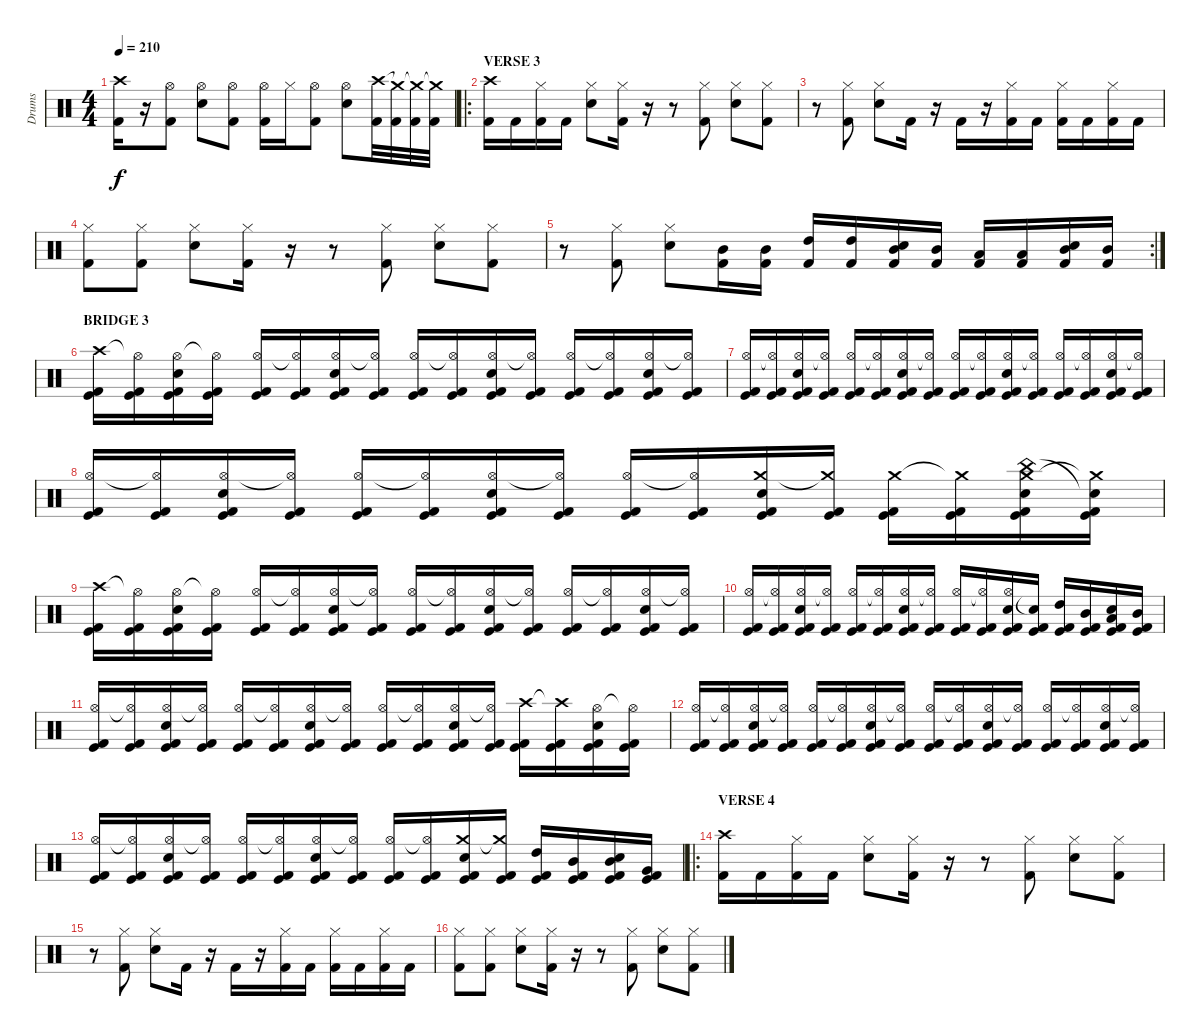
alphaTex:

\track ("Drums" "Drums") {instrument percussion}
\staff {score}
\articulation defaults
\ts (4 4)
\tempo 210
\clef neutral
\ks c
("Crash high (hit)" "Kick (hit) 2").16{dy f} r.16 ("Hi-Hat (open)" "Kick (hit) 2").8 ("Hi-Hat (open)" "Electric Snare (hit)").8 ("Hi-Hat (open)" "Kick (hit) 2").8 ("Hi-Hat (open)" "Kick (hit) 2").16 "Hi-Hat (closed)".16 ("Hi-Hat (open)" "Kick (hit) 2").8 ("Hi-Hat (open)" "Electric Snare (hit)").8 ("Crash high (hit)" "Kick (hit) 2").32 ("Crash medium (hit)"{t} "Kick (hit) 2").32 ("Crash medium (hit)"{t} "Kick (hit) 2").32 ("Crash medium (hit)"{t} "Kick (hit) 2").32 |
\ro
\section ("" "VERSE 3")
("Crash high (hit)" "Kick (hit) 2").16 "Kick (hit) 2".16 ("Hi-Hat (closed)" "Kick (hit) 2").16 "Kick (hit) 2".16 ("Hi-Hat (closed)" "Electric Snare (hit)").8 ("Hi-Hat (closed)" "Kick (hit) 2").16 r.16 r.8 ("Hi-Hat (closed)" "Kick (hit) 2").8 ("Hi-Hat (closed)" "Electric Snare (hit)").8 ("Hi-Hat (closed)" "Kick (hit) 2").8 |
r.8 ("Hi-Hat (closed)" "Kick (hit) 2").8 ("Hi-Hat (closed)" "Electric Snare (hit)").8 "Kick (hit) 2".16 r.16 "Kick (hit) 2".16 r.16 ("Hi-Hat (closed)" "Kick (hit) 2").16 "Kick (hit) 2".16 ("Hi-Hat (closed)" "Kick (hit) 2").16 "Kick (hit) 2".16 ("Hi-Hat (closed)" "Kick (hit) 2").16 "Kick (hit) 2".16 |
("Hi-Hat (closed)" "Kick (hit) 2").8 ("Hi-Hat (closed)" "Kick (hit) 2").8 ("Hi-Hat (closed)" "Electric Snare (hit)").8 ("Hi-Hat (closed)" "Kick (hit) 2").16 r.16 r.8 ("Hi-Hat (closed)" "Kick (hit) 2").8 ("Hi-Hat (closed)" "Electric Snare (hit)").8 ("Hi-Hat (closed)" "Kick (hit) 2").8 |
\rc 2
r.8 ("Hi-Hat (closed)" "Kick (hit) 2").8 ("Hi-Hat (closed)" "Electric Snare (hit)").8 ("Mid Tom (hit)" "Kick (hit) 2").16 ("Mid Tom (hit)" "Kick (hit) 2").16 ("High Tom (hit)" "Kick (hit) 2").16 ("High Tom (hit)" "Kick (hit) 2").16 ("Mid Tom (hit)" "Electric Snare (hit)" "Kick (hit) 2").16 ("Mid Tom (hit)" "Kick (hit) 2").16 ("Low Tom (hit)" "Kick (hit) 2").16 ("Low Tom (hit)" "Kick (hit) 2").16 ("Mid Tom (hit)" "Electric Snare (hit)" "Kick (hit) 2").16 ("Mid Tom (hit)" "Kick (hit) 2").16 |
\section ("" "BRIDGE 3")
("Crash high (hit)" "Kick (hit)" "Kick (hit) 2").16 ("Hi-Hat (open)"{t} "Kick (hit)" "Kick (hit) 2").16 ("Hi-Hat (open)" "Electric Snare (hit)" "Kick (hit)" "Kick (hit) 2").16 ("Hi-Hat (open)"{t} "Kick (hit)" "Kick (hit) 2").16 ("Hi-Hat (open)" "Kick (hit)" "Kick (hit) 2").16 ("Hi-Hat (open)"{t} "Kick (hit)" "Kick (hit) 2").16 ("Hi-Hat (open)" "Electric Snare (hit)" "Kick (hit)" "Kick (hit) 2").16 ("Hi-Hat (open)"{t} "Kick (hit)" "Kick (hit) 2").16 ("Hi-Hat (open)" "Kick (hit)" "Kick (hit) 2").16 ("Hi-Hat (open)"{t} "Kick (hit)" "Kick (hit) 2").16 ("Hi-Hat (open)" "Electric Snare (hit)" "Kick (hit)" "Kick (hit) 2").16 ("Hi-Hat (open)"{t} "Kick (hit)" "Kick (hit) 2").16 ("Hi-Hat (open)" "Kick (hit)" "Kick (hit) 2").16 ("Hi-Hat (open)"{t} "Kick (hit)" "Kick (hit) 2").16 ("Hi-Hat (open)" "Electric Snare (hit)" "Kick (hit)" "Kick (hit) 2").16 ("Hi-Hat (open)"{t} "Kick (hit)" "Kick (hit) 2").16 |
("Hi-Hat (open)" "Kick (hit)" "Kick (hit) 2").16 ("Hi-Hat (open)"{t} "Kick (hit)" "Kick (hit) 2").16 ("Hi-Hat (open)" "Electric Snare (hit)" "Kick (hit)" "Kick (hit) 2").16 ("Hi-Hat (open)"{t} "Kick (hit)" "Kick (hit) 2").16 ("Hi-Hat (open)" "Kick (hit)" "Kick (hit) 2").16 ("Hi-Hat (open)"{t} "Kick (hit)" "Kick (hit) 2").16 ("Hi-Hat (open)" "Electric Snare (hit)" "Kick (hit)" "Kick (hit) 2").16 ("Hi-Hat (open)"{t} "Kick (hit)" "Kick (hit) 2").16 ("Hi-Hat (open)" "Kick (hit)" "Kick (hit) 2").16 ("Hi-Hat (open)"{t} "Kick (hit)" "Kick (hit) 2").16 ("Hi-Hat (open)" "Electric Snare (hit)" "Kick (hit)" "Kick (hit) 2").16 ("Hi-Hat (open)"{t} "Kick (hit)" "Kick (hit) 2").16 ("Hi-Hat (open)" "Kick (hit)" "Kick (hit) 2").16 ("Hi-Hat (open)"{t} "Kick (hit)" "Kick (hit) 2").16 ("Hi-Hat (open)" "Electric Snare (hit)" "Kick (hit)" "Kick (hit) 2").16 ("Hi-Hat (open)"{t} "Kick (hit)" "Kick (hit) 2").16 |
("Hi-Hat (open)" "Kick (hit)" "Kick (hit) 2").16 ("Hi-Hat (open)"{t} "Kick (hit)" "Kick (hit) 2").16 ("Hi-Hat (open)" "Electric Snare (hit)" "Kick (hit)" "Kick (hit) 2").16 ("Hi-Hat (open)"{t} "Kick (hit)" "Kick (hit) 2").16 ("Hi-Hat (open)" "Kick (hit)" "Kick (hit) 2").16 ("Hi-Hat (open)"{t} "Kick (hit)" "Kick (hit) 2").16 ("Hi-Hat (open)" "Electric Snare (hit)" "Kick (hit)" "Kick (hit) 2").16 ("Hi-Hat (open)"{t} "Kick (hit)" "Kick (hit) 2").16 ("Hi-Hat (open)" "Kick (hit)" "Kick (hit) 2").16 ("Hi-Hat (open)"{t} "Kick (hit)" "Kick (hit) 2").16 ("Crash medium (hit)" "Electric Snare (hit)" "Kick (hit)" "Kick (hit) 2").16 ("Crash medium (hit)"{t} "Kick (hit)" "Kick (hit) 2").16 ("Crash medium (hit)" "Kick (hit)" "Kick (hit) 2").16 ("Crash medium (hit)"{t} "Kick (hit)" "Kick (hit) 2").16 ("Crash medium (hit)" "China (hit)" "Electric Snare (hit)" "Kick (hit)" "Kick (hit) 2").16 ("Crash medium (hit)"{t} "Snare (hit)"{t} "Kick (hit)" "Kick (hit) 2").16 |
("Crash high (hit)" "Kick (hit)" "Kick (hit) 2").16 ("Hi-Hat (open)"{t} "Kick (hit)" "Kick (hit) 2").16 ("Hi-Hat (open)" "Electric Snare (hit)" "Kick (hit)" "Kick (hit) 2").16 ("Hi-Hat (open)"{t} "Kick (hit)" "Kick (hit) 2").16 ("Hi-Hat (open)" "Kick (hit)" "Kick (hit) 2").16 ("Hi-Hat (open)"{t} "Kick (hit)" "Kick (hit) 2").16 ("Hi-Hat (open)" "Electric Snare (hit)" "Kick (hit)" "Kick (hit) 2").16 ("Hi-Hat (open)"{t} "Kick (hit)" "Kick (hit) 2").16 ("Hi-Hat (open)" "Kick (hit)" "Kick (hit) 2").16 ("Hi-Hat (open)"{t} "Kick (hit)" "Kick (hit) 2").16 ("Hi-Hat (open)" "Electric Snare (hit)" "Kick (hit)" "Kick (hit) 2").16 ("Hi-Hat (open)"{t} "Kick (hit)" "Kick (hit) 2").16 ("Hi-Hat (open)" "Kick (hit)" "Kick (hit) 2").16 ("Hi-Hat (open)"{t} "Kick (hit)" "Kick (hit) 2").16 ("Hi-Hat (open)" "Electric Snare (hit)" "Kick (hit)" "Kick (hit) 2").16 ("Hi-Hat (open)"{t} "Kick (hit)" "Kick (hit) 2").16 |
("Hi-Hat (open)" "Kick (hit)" "Kick (hit) 2").16 ("Hi-Hat (open)"{t} "Kick (hit)" "Kick (hit) 2").16 ("Hi-Hat (open)" "Electric Snare (hit)" "Kick (hit)" "Kick (hit) 2").16 ("Hi-Hat (open)"{t} "Kick (hit)" "Kick (hit) 2").16 ("Hi-Hat (open)" "Kick (hit)" "Kick (hit) 2").16 ("Hi-Hat (open)"{t} "Kick (hit)" "Kick (hit) 2").16 ("Hi-Hat (open)" "Electric Snare (hit)" "Kick (hit)" "Kick (hit) 2").16 ("Hi-Hat (open)"{t} "Kick (hit)" "Kick (hit) 2").16 ("Hi-Hat (open)" "Kick (hit)" "Kick (hit) 2").16 ("Hi-Hat (open)"{t} "Kick (hit)" "Kick (hit) 2").16 ("Hi-Hat (open)" "Electric Snare (hit)" "Kick (hit)" "Kick (hit) 2").16 ("Snare (hit)"{t} "Kick (hit)" "Kick (hit) 2").16 ("High Tom (hit)" "Kick (hit)" "Kick (hit) 2").16 ("Mid Tom (hit)" "Kick (hit)" "Kick (hit) 2").16 ("Low Tom (hit)" "Electric Snare (hit)" "Kick (hit)" "Kick (hit) 2").16 ("Mid Tom (hit)" "Kick (hit)" "Kick (hit) 2").16 |
("Hi-Hat (open)" "Kick (hit)" "Kick (hit) 2").16 ("Hi-Hat (open)"{t} "Kick (hit)" "Kick (hit) 2").16 ("Hi-Hat (open)" "Electric Snare (hit)" "Kick (hit)" "Kick (hit) 2").16 ("Hi-Hat (open)"{t} "Kick (hit)" "Kick (hit) 2").16 ("Hi-Hat (open)" "Kick (hit)" "Kick (hit) 2").16 ("Hi-Hat (open)"{t} "Kick (hit)" "Kick (hit) 2").16 ("Hi-Hat (open)" "Electric Snare (hit)" "Kick (hit)" "Kick (hit) 2").16 ("Hi-Hat (open)"{t} "Kick (hit)" "Kick (hit) 2").16 ("Hi-Hat (open)" "Kick (hit)" "Kick (hit) 2").16 ("Hi-Hat (open)"{t} "Kick (hit)" "Kick (hit) 2").16 ("Hi-Hat (open)" "Electric Snare (hit)" "Kick (hit)" "Kick (hit) 2").16 ("Hi-Hat (open)"{t} "Kick (hit)" "Kick (hit) 2").16 ("Crash high (hit)" "Kick (hit)" "Kick (hit) 2").16 ("Crash high (hit)"{t} "Kick (hit)" "Kick (hit) 2").16 ("Hi-Hat (open)" "Electric Snare (hit)" "Kick (hit)" "Kick (hit) 2").16 ("Hi-Hat (open)"{t} "Kick (hit)" "Kick (hit) 2").16 |
("Hi-Hat (open)" "Kick (hit)" "Kick (hit) 2").16 ("Hi-Hat (open)"{t} "Kick (hit)" "Kick (hit) 2").16 ("Hi-Hat (open)" "Electric Snare (hit)" "Kick (hit)" "Kick (hit) 2").16 ("Hi-Hat (open)"{t} "Kick (hit)" "Kick (hit) 2").16 ("Hi-Hat (open)" "Kick (hit)" "Kick (hit) 2").16 ("Hi-Hat (open)"{t} "Kick (hit)" "Kick (hit) 2").16 ("Hi-Hat (open)" "Electric Snare (hit)" "Kick (hit)" "Kick (hit) 2").16 ("Hi-Hat (open)"{t} "Kick (hit)" "Kick (hit) 2").16 ("Hi-Hat (open)" "Kick (hit)" "Kick (hit) 2").16 ("Hi-Hat (open)"{t} "Kick (hit)" "Kick (hit) 2").16 ("Hi-Hat (open)" "Electric Snare (hit)" "Kick (hit)" "Kick (hit) 2").16 ("Hi-Hat (open)"{t} "Kick (hit)" "Kick (hit) 2").16 ("Hi-Hat (open)" "Kick (hit)" "Kick (hit) 2").16 ("Hi-Hat (open)"{t} "Kick (hit)" "Kick (hit) 2").16 ("Hi-Hat (open)" "Electric Snare (hit)" "Kick (hit)" "Kick (hit) 2").16 ("Hi-Hat (open)"{t} "Kick (hit)" "Kick (hit) 2").16 |
("Hi-Hat (open)" "Kick (hit)" "Kick (hit) 2").16 ("Hi-Hat (open)"{t} "Kick (hit)" "Kick (hit) 2").16 ("Hi-Hat (open)" "Electric Snare (hit)" "Kick (hit)" "Kick (hit) 2").16 ("Hi-Hat (open)"{t} "Kick (hit)" "Kick (hit) 2").16 ("Hi-Hat (open)" "Kick (hit)" "Kick (hit) 2").16 ("Hi-Hat (open)"{t} "Kick (hit)" "Kick (hit) 2").16 ("Hi-Hat (open)" "Electric Snare (hit)" "Kick (hit)" "Kick (hit) 2").16 ("Hi-Hat (open)"{t} "Kick (hit)" "Kick (hit) 2").16 ("Hi-Hat (open)" "Kick (hit)" "Kick (hit) 2").16 ("Hi-Hat (open)"{t} "Kick (hit)" "Kick (hit) 2").16 ("Crash medium (hit)" "Electric Snare (hit)" "Kick (hit)" "Kick (hit) 2").16 ("Crash medium (hit)"{t} "Kick (hit)" "Kick (hit) 2").16 ("High Tom (hit)" "Kick (hit)" "Kick (hit) 2").16 ("Mid Tom (hit)" "Kick (hit)" "Kick (hit) 2").16 ("Mid Tom (hit)" "Electric Snare (hit)" "Kick (hit)" "Kick (hit) 2").16 ("Very Low Tom (hit)" "Kick (hit)" "Kick (hit) 2").16 |
\ro
\section ("" "VERSE 4")
("Crash high (hit)" "Kick (hit) 2").16 "Kick (hit) 2".16 ("Hi-Hat (closed)" "Kick (hit) 2").16 "Kick (hit) 2".16 ("Hi-Hat (closed)" "Electric Snare (hit)").8 ("Hi-Hat (closed)" "Kick (hit) 2").16 r.16 r.8 ("Hi-Hat (closed)" "Kick (hit) 2").8 ("Hi-Hat (closed)" "Electric Snare (hit)").8 ("Hi-Hat (closed)" "Kick (hit) 2").8 |
r.8 ("Hi-Hat (closed)" "Kick (hit) 2").8 ("Hi-Hat (closed)" "Electric Snare (hit)").8 "Kick (hit) 2".16 r.16 "Kick (hit) 2".16 r.16 ("Hi-Hat (closed)" "Kick (hit) 2").16 "Kick (hit) 2".16 ("Hi-Hat (closed)" "Kick (hit) 2").16 "Kick (hit) 2".16 ("Hi-Hat (closed)" "Kick (hit) 2").16 "Kick (hit) 2".16 |
("Hi-Hat (closed)" "Kick (hit) 2").8 ("Hi-Hat (closed)" "Kick (hit) 2").8 ("Hi-Hat (closed)" "Electric Snare (hit)").8 ("Hi-Hat (closed)" "Kick (hit) 2").16 r.16 r.8 ("Hi-Hat (closed)" "Kick (hit) 2").8 ("Hi-Hat (closed)" "Electric Snare (hit)").8 ("Hi-Hat (closed)" "Kick (hit) 2").8
